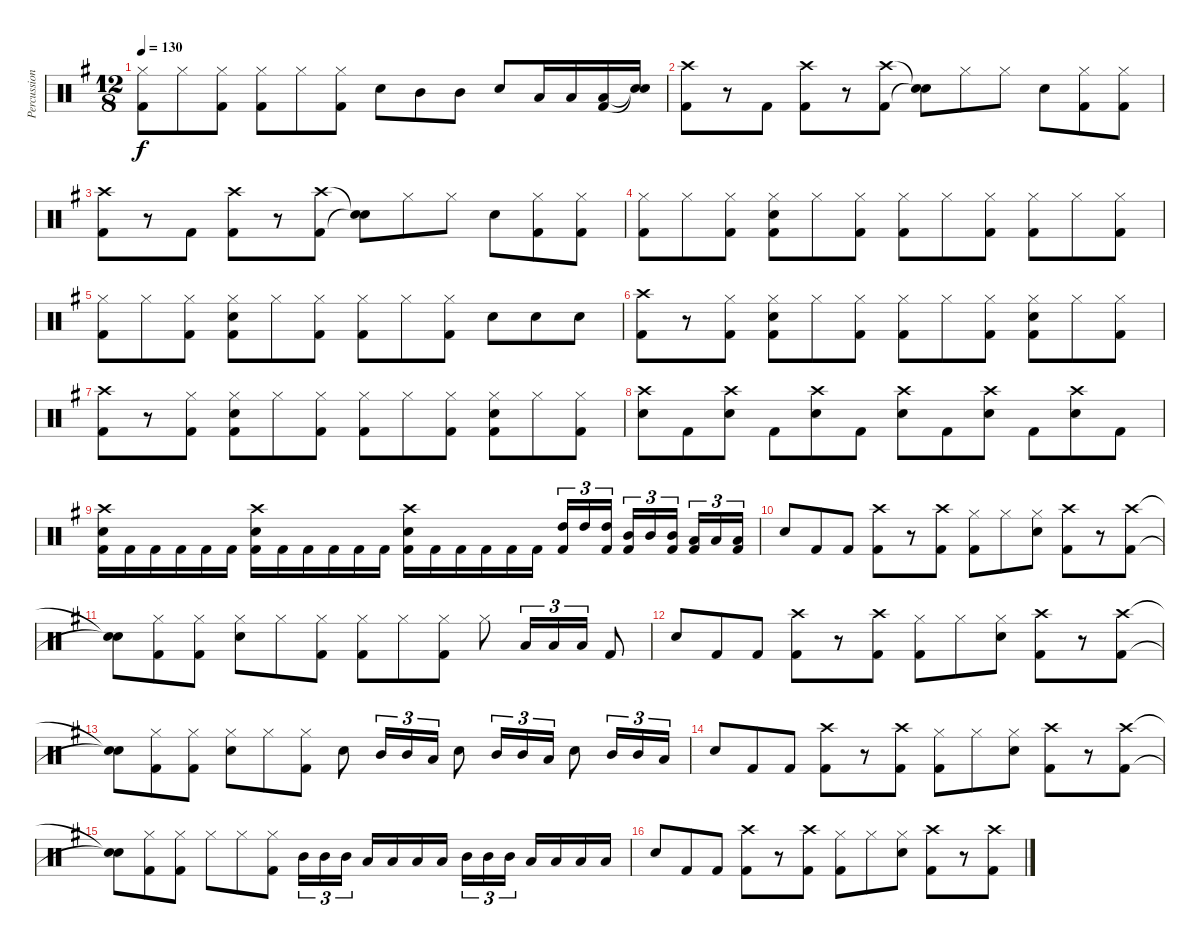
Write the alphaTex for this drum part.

\track ("Percussion" "Percussion") {instrument percussion}
\staff {score}
\articulation defaults
\ts (12 8)
\tempo 130
\clef neutral
\ks g
("Hi-Hat (closed)" "Kick (hit) 2").8{dy f} "Hi-Hat (closed)".8 ("Hi-Hat (closed)" "Kick (hit) 2").8 ("Hi-Hat (closed)" "Kick (hit) 2").8 "Hi-Hat (closed)".8 ("Hi-Hat (closed)" "Kick (hit) 2").8 "Snare (hit) 2".8 "Mid Tom (hit)".8 "Mid Tom (hit)".8 "Snare (hit) 2".8 "Low Tom (hit)".16 "Low Tom (hit)".16 ("Low Tom (hit)" "Kick (hit) 2").16 ("Snare (hit)"{t} "Snare (hit)"{t}).16 |
("Crash high (hit)" "Kick (hit) 2").8 r.8 "Kick (hit) 2".8 ("Crash high (hit)" "Kick (hit) 2").8 r.8 ("Crash high (hit)" "Kick (hit) 2").8 ("Snare (hit)"{t} "Snare (hit)"{t}).8 "Hi-Hat (closed)".8 "Hi-Hat (closed)".8 "Snare (hit) 2".8 ("Hi-Hat (closed)" "Kick (hit) 2").8 ("Hi-Hat (closed)" "Kick (hit) 2").8 |
("Crash high (hit)" "Kick (hit) 2").8 r.8 "Kick (hit) 2".8 ("Crash high (hit)" "Kick (hit) 2").8 r.8 ("Crash high (hit)" "Kick (hit) 2").8 ("Snare (hit)"{t} "Snare (hit)"{t}).8 "Hi-Hat (closed)".8 "Hi-Hat (closed)".8 "Snare (hit) 2".8 ("Hi-Hat (closed)" "Kick (hit) 2").8 ("Hi-Hat (closed)" "Kick (hit) 2").8 |
("Hi-Hat (closed)" "Kick (hit) 2").8 "Hi-Hat (closed)".8 ("Hi-Hat (closed)" "Kick (hit) 2").8 ("Hi-Hat (closed)" "Snare (hit) 2" "Kick (hit) 2").8 "Hi-Hat (closed)".8 ("Hi-Hat (closed)" "Kick (hit) 2").8 ("Hi-Hat (closed)" "Kick (hit) 2").8 "Hi-Hat (closed)".8 ("Hi-Hat (closed)" "Kick (hit) 2").8 ("Hi-Hat (closed)" "Kick (hit) 2").8 "Hi-Hat (closed)".8 ("Hi-Hat (closed)" "Kick (hit) 2").8 |
("Hi-Hat (closed)" "Kick (hit) 2").8 "Hi-Hat (closed)".8 ("Hi-Hat (closed)" "Kick (hit) 2").8 ("Hi-Hat (closed)" "Snare (hit) 2" "Kick (hit) 2").8 "Hi-Hat (closed)".8 ("Hi-Hat (closed)" "Kick (hit) 2").8 ("Hi-Hat (closed)" "Kick (hit) 2").8 "Hi-Hat (closed)".8 ("Hi-Hat (closed)" "Kick (hit) 2").8 "Snare (hit) 2".8 "Snare (hit) 2".8 "Snare (hit) 2".8 |
("Crash high (hit)" "Kick (hit) 2").8 r.8 ("Hi-Hat (closed)" "Kick (hit) 2").8 ("Hi-Hat (closed)" "Snare (hit) 2" "Kick (hit) 2").8 "Hi-Hat (closed)".8 ("Hi-Hat (closed)" "Kick (hit) 2").8 ("Hi-Hat (closed)" "Kick (hit) 2").8 "Hi-Hat (closed)".8 ("Hi-Hat (closed)" "Kick (hit) 2").8 ("Hi-Hat (closed)" "Snare (hit) 2" "Kick (hit) 2").8 "Hi-Hat (closed)".8 ("Hi-Hat (closed)" "Kick (hit) 2").8 |
("Crash high (hit)" "Kick (hit) 2").8 r.8 ("Hi-Hat (closed)" "Kick (hit) 2").8 ("Hi-Hat (closed)" "Snare (hit) 2" "Kick (hit) 2").8 "Hi-Hat (closed)".8 ("Hi-Hat (closed)" "Kick (hit) 2").8 ("Hi-Hat (closed)" "Kick (hit) 2").8 "Hi-Hat (closed)".8 ("Hi-Hat (closed)" "Kick (hit) 2").8 ("Hi-Hat (closed)" "Snare (hit) 2" "Kick (hit) 2").8 "Hi-Hat (closed)".8 ("Hi-Hat (closed)" "Kick (hit) 2").8 |
("Crash high (hit)" "Snare (hit) 2").8 "Kick (hit) 2".8 ("Crash high (hit)" "Snare (hit) 2").8 "Kick (hit) 2".8 ("Crash high (hit)" "Snare (hit) 2").8 "Kick (hit) 2".8 ("Crash high (hit)" "Snare (hit) 2").8 "Kick (hit) 2".8 ("Crash high (hit)" "Snare (hit) 2").8 "Kick (hit) 2".8 ("Crash high (hit)" "Snare (hit) 2").8 "Kick (hit) 2".8 |
("Crash high (hit)" "Snare (hit) 2" "Kick (hit) 2").16 "Kick (hit) 2".16 "Kick (hit) 2".16 "Kick (hit) 2".16 "Kick (hit) 2".16 "Kick (hit) 2".16 ("Crash high (hit)" "Snare (hit) 2" "Kick (hit) 2").16 "Kick (hit) 2".16 "Kick (hit) 2".16 "Kick (hit) 2".16 "Kick (hit) 2".16 "Kick (hit) 2".16 ("Crash high (hit)" "Snare (hit) 2" "Kick (hit) 2").16 "Kick (hit) 2".16 "Kick (hit) 2".16 "Kick (hit) 2".16 "Kick (hit) 2".16 "Kick (hit) 2".16 ("High Tom (hit)" "Kick (hit) 2").16{tu (3 2)} "High Tom (hit)".16{tu (3 2)} ("High Tom (hit)" "Kick (hit) 2").16{tu (3 2) beam splitsecondary} ("Mid Tom (hit)" "Kick (hit) 2").16{tu (3 2)} "Mid Tom (hit)".16{tu (3 2)} ("Mid Tom (hit)" "Kick (hit) 2").16{tu (3 2) beam splitsecondary} ("Low Tom (hit)" "Kick (hit) 2").16{tu (3 2)} "Low Tom (hit)".16{tu (3 2)} ("Low Tom (hit)" "Kick (hit) 2").16{tu (3 2)} |
"Snare (hit) 2".8 "Kick (hit) 2".8 "Kick (hit) 2".8 ("Crash high (hit)" "Kick (hit) 2").8 r.8 ("Crash high (hit)" "Kick (hit) 2").8 ("Hi-Hat (closed)" "Kick (hit) 2").8 "Hi-Hat (closed)".8 ("Hi-Hat (closed)" "Snare (hit) 2").8 ("Crash high (hit)" "Kick (hit) 2").8 r.8 ("Crash high (hit)" "Kick (hit) 2").8 |
("Snare (hit)"{t} "Snare (hit)"{t}).8 ("Hi-Hat (closed)" "Kick (hit) 2").8 ("Hi-Hat (closed)" "Kick (hit) 2").8 ("Hi-Hat (closed)" "Snare (hit) 2").8 "Hi-Hat (closed)".8 ("Hi-Hat (closed)" "Kick (hit) 2").8 ("Hi-Hat (closed)" "Kick (hit) 2").8 "Hi-Hat (closed)".8 ("Hi-Hat (closed)" "Kick (hit) 2").8 "Hi-Hat (closed)".8 "Low Tom (hit)".16{tu (3 2)} "Low Tom (hit)".16{tu (3 2)} "Low Tom (hit)".16{tu (3 2)} "Kick (hit) 2".8 |
"Snare (hit) 2".8 "Kick (hit) 2".8 "Kick (hit) 2".8 ("Crash high (hit)" "Kick (hit) 2").8 r.8 ("Crash high (hit)" "Kick (hit) 2").8 ("Hi-Hat (closed)" "Kick (hit) 2").8 "Hi-Hat (closed)".8 ("Hi-Hat (closed)" "Snare (hit) 2").8 ("Crash high (hit)" "Kick (hit) 2").8 r.8 ("Crash high (hit)" "Kick (hit) 2").8 |
("Snare (hit)"{t} "Snare (hit)"{t}).8 ("Hi-Hat (closed)" "Kick (hit) 2").8 ("Hi-Hat (closed)" "Kick (hit) 2").8 ("Hi-Hat (closed)" "Snare (hit) 2").8 "Hi-Hat (closed)".8 ("Hi-Hat (closed)" "Kick (hit) 2").8 "Snare (hit) 2".8 "Mid Tom (hit)".16{tu (3 2)} "Mid Tom (hit)".16{tu (3 2)} "Low Tom (hit)".16{tu (3 2)} "Snare (hit) 2".8 "Mid Tom (hit)".16{tu (3 2)} "Mid Tom (hit)".16{tu (3 2)} "Low Tom (hit)".16{tu (3 2)} "Snare (hit) 2".8 "Mid Tom (hit)".16{tu (3 2)} "Mid Tom (hit)".16{tu (3 2)} "Low Tom (hit)".16{tu (3 2)} |
"Snare (hit) 2".8 "Kick (hit) 2".8 "Kick (hit) 2".8 ("Crash high (hit)" "Kick (hit) 2").8 r.8 ("Crash high (hit)" "Kick (hit) 2").8 ("Hi-Hat (closed)" "Kick (hit) 2").8 "Hi-Hat (closed)".8 ("Hi-Hat (closed)" "Snare (hit) 2").8 ("Crash high (hit)" "Kick (hit) 2").8 r.8 ("Crash high (hit)" "Kick (hit) 2").8 |
("Snare (hit)"{t} "Snare (hit)"{t}).8 ("Hi-Hat (closed)" "Kick (hit) 2").8 ("Hi-Hat (closed)" "Kick (hit) 2").8 "Hi-Hat (closed)".8 "Hi-Hat (closed)".8 ("Hi-Hat (closed)" "Kick (hit) 2").8 "Mid Tom (hit)".16{tu (3 2)} "Mid Tom (hit)".16{tu (3 2)} "Mid Tom (hit)".16{tu (3 2) beam splitsecondary} "Low Tom (hit)".16 "Low Tom (hit)".16 "Low Tom (hit)".16 "Low Tom (hit)".16 "Mid Tom (hit)".16{tu (3 2)} "Mid Tom (hit)".16{tu (3 2)} "Mid Tom (hit)".16{tu (3 2) beam splitsecondary} "Low Tom (hit)".16 "Low Tom (hit)".16 "Low Tom (hit)".16 "Low Tom (hit)".16 |
"Snare (hit) 2".8 "Kick (hit) 2".8 "Kick (hit) 2".8 ("Crash high (hit)" "Kick (hit) 2").8 r.8 ("Crash high (hit)" "Kick (hit) 2").8 ("Hi-Hat (closed)" "Kick (hit) 2").8 "Hi-Hat (closed)".8 ("Hi-Hat (closed)" "Snare (hit) 2").8 ("Crash high (hit)" "Kick (hit) 2").8 r.8 ("Crash high (hit)" "Kick (hit) 2").8
